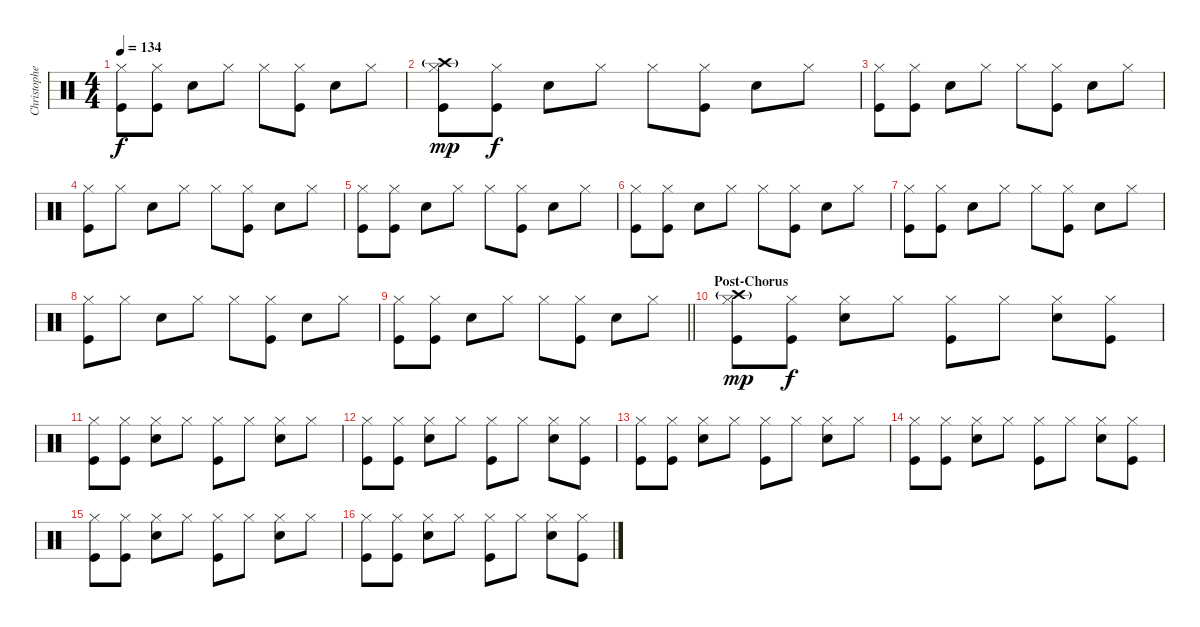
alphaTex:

\track ("Christopher - Drums" "Christophe") {instrument percussion}
\staff {score}
\articulation defaults
\ts (4 4)
\tempo 134
\clef neutral
\ks c
("Hi-Hat (closed)" "Kick (hit)").8{dy f} ("Hi-Hat (closed)" "Kick (hit)").8 "Snare (hit) 2".8 "Hi-Hat (closed)".8 "Hi-Hat (closed)".8 ("Hi-Hat (closed)" "Kick (hit)").8 "Snare (hit) 2".8 "Hi-Hat (closed)".8 |
("Crash high (hit)"{g} "Hi-Hat (closed)" "Kick (hit)").8{dy mp} ("Hi-Hat (closed)" "Kick (hit)").8{dy f} "Snare (hit) 2".8 "Hi-Hat (closed)".8 "Hi-Hat (closed)".8 ("Hi-Hat (closed)" "Kick (hit)").8 "Snare (hit) 2".8 "Hi-Hat (closed)".8 |
("Hi-Hat (closed)" "Kick (hit)").8 ("Hi-Hat (closed)" "Kick (hit)").8 "Snare (hit) 2".8 "Hi-Hat (closed)".8 "Hi-Hat (closed)".8 ("Hi-Hat (closed)" "Kick (hit)").8 "Snare (hit) 2".8 "Hi-Hat (closed)".8 |
("Hi-Hat (closed)" "Kick (hit)").8 "Hi-Hat (closed)".8 "Snare (hit) 2".8 "Hi-Hat (closed)".8 "Hi-Hat (closed)".8 ("Hi-Hat (closed)" "Kick (hit)").8 "Snare (hit) 2".8 "Hi-Hat (closed)".8 |
("Hi-Hat (closed)" "Kick (hit)").8 ("Hi-Hat (closed)" "Kick (hit)").8 "Snare (hit) 2".8 "Hi-Hat (closed)".8 "Hi-Hat (closed)".8 ("Hi-Hat (closed)" "Kick (hit)").8 "Snare (hit) 2".8 "Hi-Hat (closed)".8 |
("Hi-Hat (closed)" "Kick (hit)").8 ("Hi-Hat (closed)" "Kick (hit)").8 "Snare (hit) 2".8 "Hi-Hat (closed)".8 "Hi-Hat (closed)".8 ("Hi-Hat (closed)" "Kick (hit)").8 "Snare (hit) 2".8 "Hi-Hat (closed)".8 |
("Hi-Hat (closed)" "Kick (hit)").8 ("Hi-Hat (closed)" "Kick (hit)").8 "Snare (hit) 2".8 "Hi-Hat (closed)".8 "Hi-Hat (closed)".8 ("Hi-Hat (closed)" "Kick (hit)").8 "Snare (hit) 2".8 "Hi-Hat (closed)".8 |
("Hi-Hat (closed)" "Kick (hit)").8 "Hi-Hat (closed)".8 "Snare (hit) 2".8 "Hi-Hat (closed)".8 "Hi-Hat (closed)".8 ("Hi-Hat (closed)" "Kick (hit)").8 "Snare (hit) 2".8 "Hi-Hat (closed)".8 |
\barLineRight lightlight
("Hi-Hat (closed)" "Kick (hit)").8 ("Hi-Hat (closed)" "Kick (hit)").8 "Snare (hit) 2".8 "Hi-Hat (closed)".8 "Hi-Hat (closed)".8 ("Hi-Hat (closed)" "Kick (hit)").8 "Snare (hit) 2".8 "Hi-Hat (closed)".8 |
\section ("" "Post-Chorus")
("Crash high (hit)"{g} "Hi-Hat (closed)" "Kick (hit)").8{dy mp} ("Hi-Hat (closed)" "Kick (hit)").8{dy f} ("Hi-Hat (closed)" "Snare (hit) 2").8 "Hi-Hat (closed)".8 ("Hi-Hat (closed)" "Kick (hit)").8 "Hi-Hat (closed)".8 ("Hi-Hat (closed)" "Snare (hit) 2").8 ("Hi-Hat (closed)" "Kick (hit)").8 |
("Hi-Hat (closed)" "Kick (hit)").8 ("Hi-Hat (closed)" "Kick (hit)").8 ("Hi-Hat (closed)" "Snare (hit) 2").8 "Hi-Hat (closed)".8 ("Hi-Hat (closed)" "Kick (hit)").8 "Hi-Hat (closed)".8 ("Hi-Hat (closed)" "Snare (hit) 2").8 "Hi-Hat (closed)".8 |
("Hi-Hat (closed)" "Kick (hit)").8 ("Hi-Hat (closed)" "Kick (hit)").8 ("Hi-Hat (closed)" "Snare (hit) 2").8 "Hi-Hat (closed)".8 ("Hi-Hat (closed)" "Kick (hit)").8 "Hi-Hat (closed)".8 ("Hi-Hat (closed)" "Snare (hit) 2").8 ("Hi-Hat (closed)" "Kick (hit)").8 |
("Hi-Hat (closed)" "Kick (hit)").8 ("Hi-Hat (closed)" "Kick (hit)").8 ("Hi-Hat (closed)" "Snare (hit) 2").8 "Hi-Hat (closed)".8 ("Hi-Hat (closed)" "Kick (hit)").8 "Hi-Hat (closed)".8 ("Hi-Hat (closed)" "Snare (hit) 2").8 "Hi-Hat (closed)".8 |
("Hi-Hat (closed)" "Kick (hit)").8 ("Hi-Hat (closed)" "Kick (hit)").8 ("Hi-Hat (closed)" "Snare (hit) 2").8 "Hi-Hat (closed)".8 ("Hi-Hat (closed)" "Kick (hit)").8 "Hi-Hat (closed)".8 ("Hi-Hat (closed)" "Snare (hit) 2").8 ("Hi-Hat (closed)" "Kick (hit)").8 |
("Hi-Hat (closed)" "Kick (hit)").8 ("Hi-Hat (closed)" "Kick (hit)").8 ("Hi-Hat (closed)" "Snare (hit) 2").8 "Hi-Hat (closed)".8 ("Hi-Hat (closed)" "Kick (hit)").8 "Hi-Hat (closed)".8 ("Hi-Hat (closed)" "Snare (hit) 2").8 "Hi-Hat (closed)".8 |
("Hi-Hat (closed)" "Kick (hit)").8 ("Hi-Hat (closed)" "Kick (hit)").8 ("Hi-Hat (closed)" "Snare (hit) 2").8 "Hi-Hat (closed)".8 ("Hi-Hat (closed)" "Kick (hit)").8 "Hi-Hat (closed)".8 ("Hi-Hat (closed)" "Snare (hit) 2").8 ("Hi-Hat (closed)" "Kick (hit)").8
